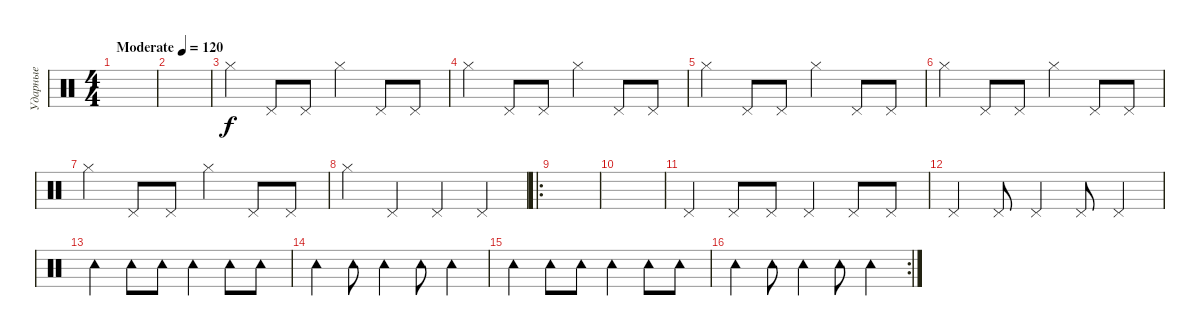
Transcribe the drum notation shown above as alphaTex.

\track ("Ударные" "Ударные") {instrument percussion}
\staff {score}
\articulation defaults
\ts (4 4)
\tempo (120 "Moderate")
\clef neutral
\ks c
|
|
"Hi-Hat (closed)".4 "Pedal Hi-Hat (hit)".8 "Pedal Hi-Hat (hit)".8 "Hi-Hat (closed)".4 "Pedal Hi-Hat (hit)".8 "Pedal Hi-Hat (hit)".8 |
"Hi-Hat (closed)".4 "Pedal Hi-Hat (hit)".8 "Pedal Hi-Hat (hit)".8 "Hi-Hat (closed)".4 "Pedal Hi-Hat (hit)".8 "Pedal Hi-Hat (hit)".8 |
"Hi-Hat (closed)".4 "Pedal Hi-Hat (hit)".8 "Pedal Hi-Hat (hit)".8 "Hi-Hat (closed)".4 "Pedal Hi-Hat (hit)".8 "Pedal Hi-Hat (hit)".8 |
"Hi-Hat (closed)".4 "Pedal Hi-Hat (hit)".8 "Pedal Hi-Hat (hit)".8 "Hi-Hat (closed)".4 "Pedal Hi-Hat (hit)".8 "Pedal Hi-Hat (hit)".8 |
"Hi-Hat (closed)".4 "Pedal Hi-Hat (hit)".8 "Pedal Hi-Hat (hit)".8 "Hi-Hat (closed)".4 "Pedal Hi-Hat (hit)".8 "Pedal Hi-Hat (hit)".8 |
"Hi-Hat (closed)".4 "Pedal Hi-Hat (hit)".4 "Pedal Hi-Hat (hit)".4 "Pedal Hi-Hat (hit)".4 |
\ro
|
|
"Pedal Hi-Hat (hit)".4 "Pedal Hi-Hat (hit)".8 "Pedal Hi-Hat (hit)".8 "Pedal Hi-Hat (hit)".4 "Pedal Hi-Hat (hit)".8 "Pedal Hi-Hat (hit)".8 |
"Pedal Hi-Hat (hit)".4 "Pedal Hi-Hat (hit)".8 "Pedal Hi-Hat (hit)".4 "Pedal Hi-Hat (hit)".8 "Pedal Hi-Hat (hit)".4 |
"Tambourine (hit)".4 "Tambourine (hit)".8 "Tambourine (hit)".8 "Tambourine (hit)".4 "Tambourine (hit)".8 "Tambourine (hit)".8 |
"Tambourine (hit)".4 "Tambourine (hit)".8 "Tambourine (hit)".4 "Tambourine (hit)".8 "Tambourine (hit)".4 |
"Tambourine (hit)".4 "Tambourine (hit)".8 "Tambourine (hit)".8 "Tambourine (hit)".4 "Tambourine (hit)".8 "Tambourine (hit)".8 |
\rc 2 "Tambourine (hit)".4 "Tambourine (hit)".8 "Tambourine (hit)".4 "Tambourine (hit)".8 "Tambourine (hit)".4
